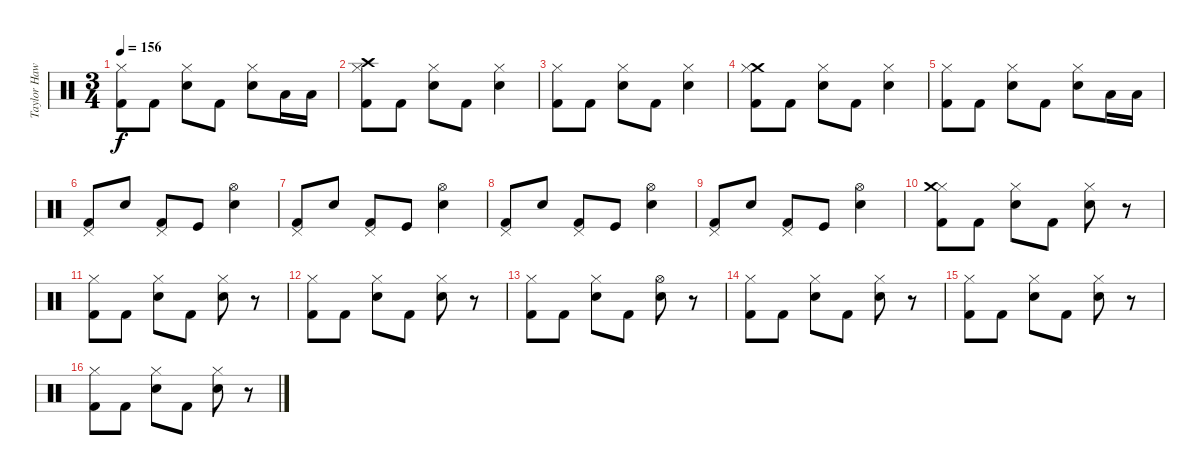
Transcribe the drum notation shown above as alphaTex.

\track ("Taylor Hawkins" "Taylor Haw") {instrument percussion}
\staff {score}
\articulation defaults
\ts (3 4)
\tempo 156
\clef neutral
\ks c
("Hi-Hat (closed)" "Kick (hit) 2").8{dy f} "Kick (hit) 2".8 ("Electric Snare (hit)" "Hi-Hat (closed)").8 "Kick (hit) 2".8 ("Electric Snare (hit)" "Hi-Hat (closed)").8 "Low Tom (hit)".16 "Low Tom (hit)".16 |
("Crash high (hit)" "Hi-Hat (closed)" "Kick (hit) 2").8 "Kick (hit) 2".8 ("Electric Snare (hit)" "Hi-Hat (closed)").8 "Kick (hit) 2".8 ("Electric Snare (hit)" "Hi-Hat (closed)").4 |
("Hi-Hat (closed)" "Kick (hit) 2").8 "Kick (hit) 2".8 ("Electric Snare (hit)" "Hi-Hat (closed)").8 "Kick (hit) 2".8 ("Electric Snare (hit)" "Hi-Hat (closed)").4 |
("Crash medium (hit)" "Hi-Hat (closed)" "Kick (hit) 2").8 "Kick (hit) 2".8 ("Electric Snare (hit)" "Hi-Hat (closed)").8 "Kick (hit) 2".8 ("Electric Snare (hit)" "Hi-Hat (closed)").4 |
("Hi-Hat (closed)" "Kick (hit) 2").8 "Kick (hit) 2".8 ("Electric Snare (hit)" "Hi-Hat (closed)").8 "Kick (hit) 2".8 ("Electric Snare (hit)" "Hi-Hat (closed)").8 "Low Tom (hit)".16 "Low Tom (hit)".16 |
("Pedal Hi-Hat (hit)" "Kick (hit) 2").8 "Electric Snare (hit)".8 ("Pedal Hi-Hat (hit)" "Kick (hit) 2").8 "Kick (hit)".8 ("Hi-Hat (open)" "Electric Snare (hit)").4 |
("Pedal Hi-Hat (hit)" "Kick (hit) 2").8 "Electric Snare (hit)".8 ("Pedal Hi-Hat (hit)" "Kick (hit) 2").8 "Kick (hit)".8 ("Hi-Hat (open)" "Electric Snare (hit)").4 |
("Pedal Hi-Hat (hit)" "Kick (hit) 2").8 "Electric Snare (hit)".8 ("Pedal Hi-Hat (hit)" "Kick (hit) 2").8 "Kick (hit)".8 ("Hi-Hat (open)" "Electric Snare (hit)").4 |
("Pedal Hi-Hat (hit)" "Kick (hit) 2").8 "Electric Snare (hit)".8 ("Pedal Hi-Hat (hit)" "Kick (hit) 2").8 "Kick (hit)".8 ("Hi-Hat (open)" "Electric Snare (hit)").4 |
("Hi-Hat (closed)" "Crash medium (hit)" "Kick (hit) 2").8 "Kick (hit) 2".8 ("Hi-Hat (closed)" "Electric Snare (hit)").8 "Kick (hit) 2".8 ("Hi-Hat (closed)" "Electric Snare (hit)").8 r.8 |
("Hi-Hat (closed)" "Kick (hit) 2").8 "Kick (hit) 2".8 ("Hi-Hat (closed)" "Electric Snare (hit)").8 "Kick (hit) 2".8 ("Hi-Hat (closed)" "Electric Snare (hit)").8 r.8 |
("Hi-Hat (closed)" "Kick (hit) 2").8 "Kick (hit) 2".8 ("Hi-Hat (closed)" "Electric Snare (hit)").8 "Kick (hit) 2".8 ("Hi-Hat (closed)" "Electric Snare (hit)").8 r.8 |
("Hi-Hat (closed)" "Kick (hit) 2").8 "Kick (hit) 2".8 ("Hi-Hat (closed)" "Electric Snare (hit)").8 "Kick (hit) 2".8 ("Hi-Hat (open)" "Electric Snare (hit)").8 r.8 |
("Hi-Hat (closed)" "Kick (hit) 2").8 "Kick (hit) 2".8 ("Hi-Hat (closed)" "Electric Snare (hit)").8 "Kick (hit) 2".8 ("Hi-Hat (closed)" "Electric Snare (hit)").8 r.8 |
("Hi-Hat (closed)" "Kick (hit) 2").8 "Kick (hit) 2".8 ("Hi-Hat (closed)" "Electric Snare (hit)").8 "Kick (hit) 2".8 ("Hi-Hat (closed)" "Electric Snare (hit)").8 r.8 |
("Hi-Hat (closed)" "Kick (hit) 2").8 "Kick (hit) 2".8 ("Hi-Hat (closed)" "Electric Snare (hit)").8 "Kick (hit) 2".8 ("Hi-Hat (closed)" "Electric Snare (hit)").8 r.8
